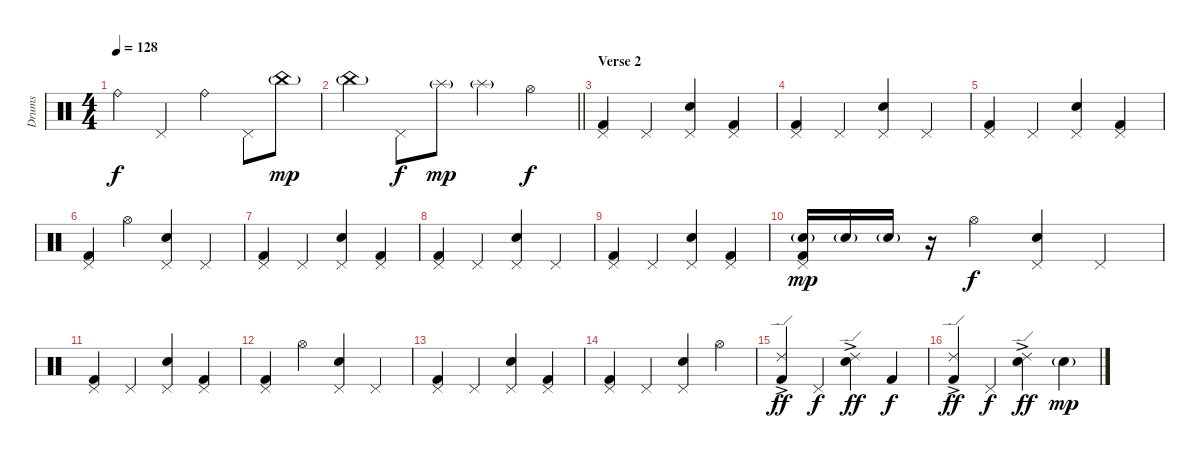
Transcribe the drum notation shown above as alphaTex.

\track ("Drums" "Drums") {instrument percussion}
\staff {score}
\articulation defaults
\ts (4 4)
\tempo 128
\clef neutral
\ks c "Ride (bell)".4{dy f} "Pedal Hi-Hat (hit)".4 "Ride (bell)".4 "Pedal Hi-Hat (hit)".8 "China (hit)"{g}.8{dy mp}
|
\barLineRight lightlight "China (hit)"{g}.4 "Pedal Hi-Hat (hit)".8{dy f} "Splash (hit)"{g}.8{dy mp} "Splash (hit)"{g}.4 "Hi-Hat (open)".4{dy f}
|
\section ("" "Verse 2")
("Pedal Hi-Hat (hit)" "Kick (hit) 2").4 "Pedal Hi-Hat (hit)".4 ("Pedal Hi-Hat (hit)" "Snare (hit) 2").4 ("Pedal Hi-Hat (hit)" "Kick (hit) 2").4 |
("Pedal Hi-Hat (hit)" "Kick (hit) 2").4 "Pedal Hi-Hat (hit)".4 ("Pedal Hi-Hat (hit)" "Snare (hit) 2").4 "Pedal Hi-Hat (hit)".4 |
("Pedal Hi-Hat (hit)" "Kick (hit) 2").4 "Pedal Hi-Hat (hit)".4 ("Pedal Hi-Hat (hit)" "Snare (hit) 2").4 ("Pedal Hi-Hat (hit)" "Kick (hit) 2").4 |
("Pedal Hi-Hat (hit)" "Kick (hit) 2").4 "Hi-Hat (open)".4 ("Pedal Hi-Hat (hit)" "Snare (hit) 2").4 "Pedal Hi-Hat (hit)".4 |
("Pedal Hi-Hat (hit)" "Kick (hit) 2").4 "Pedal Hi-Hat (hit)".4 ("Pedal Hi-Hat (hit)" "Snare (hit) 2").4 ("Pedal Hi-Hat (hit)" "Kick (hit) 2").4 |
("Pedal Hi-Hat (hit)" "Kick (hit) 2").4 "Pedal Hi-Hat (hit)".4 ("Pedal Hi-Hat (hit)" "Snare (hit) 2").4 "Pedal Hi-Hat (hit)".4 |
("Pedal Hi-Hat (hit)" "Kick (hit) 2").4 "Pedal Hi-Hat (hit)".4 ("Pedal Hi-Hat (hit)" "Snare (hit) 2").4 ("Pedal Hi-Hat (hit)" "Kick (hit) 2").4 |
("Pedal Hi-Hat (hit)" "Kick (hit) 2" "Snare (hit) 2"{g}).16{dy mp} "Snare (hit) 2"{g}.16 "Snare (hit) 2"{g}.16 r.16 "Hi-Hat (open)".4{dy f} ("Pedal Hi-Hat (hit)" "Snare (hit) 2").4 "Pedal Hi-Hat (hit)".4 |
("Pedal Hi-Hat (hit)" "Kick (hit) 2").4 "Pedal Hi-Hat (hit)".4 ("Pedal Hi-Hat (hit)" "Snare (hit) 2").4 ("Pedal Hi-Hat (hit)" "Kick (hit) 2").4 |
("Pedal Hi-Hat (hit)" "Kick (hit) 2").4 "Hi-Hat (open)".4 ("Pedal Hi-Hat (hit)" "Snare (hit) 2").4 "Pedal Hi-Hat (hit)".4 |
("Pedal Hi-Hat (hit)" "Kick (hit) 2").4 "Pedal Hi-Hat (hit)".4 ("Pedal Hi-Hat (hit)" "Snare (hit) 2").4 ("Pedal Hi-Hat (hit)" "Kick (hit) 2").4 |
("Pedal Hi-Hat (hit)" "Kick (hit) 2").4 "Pedal Hi-Hat (hit)".4 ("Pedal Hi-Hat (hit)" "Snare (hit) 2").4 "Hi-Hat (open)".4 |
("Kick (hit) 2"{ac} "Ride (edge) 2").4{dy ff} "Pedal Hi-Hat (hit)".4{dy f} ("Snare (hit) 2"{ac} "Ride (edge) 2").4{dy ff} "Kick (hit) 2".4{dy f} |
("Kick (hit) 2" "Ride (edge) 2"{ac}).4{dy ff} "Pedal Hi-Hat (hit)".4{dy f} ("Snare (hit) 2"{ac} "Ride (edge) 2").4{dy ff} "Snare (hit) 2"{g}.4{dy mp}
